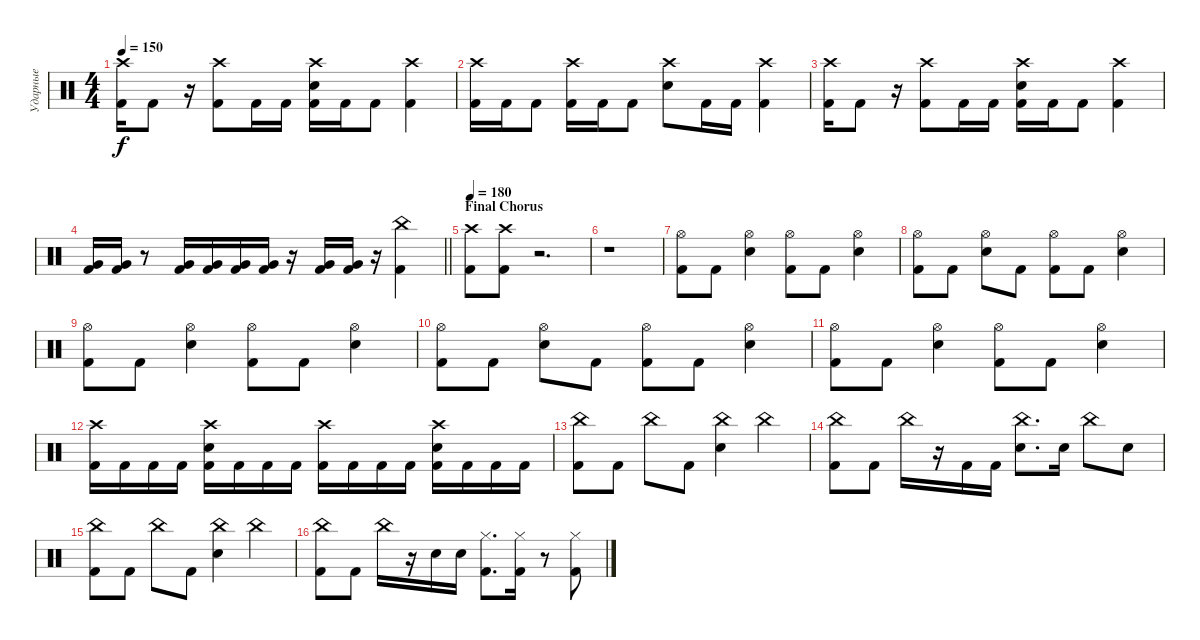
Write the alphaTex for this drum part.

\track ("Ударные" "Ударные") {instrument percussion}
\staff {score}
\articulation defaults
\ts (4 4)
\tempo 150
\clef neutral
\ks c
("Crash high (hit)" "Kick (hit) 2").16{dy f} "Kick (hit) 2".8 r.16 ("Crash high (hit)" "Kick (hit) 2").8 "Kick (hit) 2".16 "Kick (hit) 2".16 ("Crash high (hit)" "Electric Snare (hit)" "Kick (hit) 2").16 "Kick (hit) 2".16 "Kick (hit) 2".8 ("Crash high (hit)" "Kick (hit) 2").4 |
("Crash high (hit)" "Kick (hit) 2").16 "Kick (hit) 2".16 "Kick (hit) 2".8 ("Crash high (hit)" "Kick (hit) 2").16 "Kick (hit) 2".16 "Kick (hit) 2".8 ("Crash high (hit)" "Electric Snare (hit)").8 "Kick (hit) 2".16 "Kick (hit) 2".16 ("Crash high (hit)" "Kick (hit) 2").4 |
("Crash high (hit)" "Kick (hit) 2").16 "Kick (hit) 2".8 r.16 ("Crash high (hit)" "Kick (hit) 2").8 "Kick (hit) 2".16 "Kick (hit) 2".16 ("Crash high (hit)" "Electric Snare (hit)" "Kick (hit) 2").16 "Kick (hit) 2".16 "Kick (hit) 2".8 ("Crash high (hit)" "Kick (hit) 2").4 |
\barLineRight lightlight
("Very Low Tom (hit)" "Kick (hit) 2").16 ("Very Low Tom (hit)" "Kick (hit) 2").16 r.8 ("Very Low Tom (hit)" "Kick (hit) 2").16 ("Very Low Tom (hit)" "Kick (hit) 2").16 ("Very Low Tom (hit)" "Kick (hit) 2").16 ("Very Low Tom (hit)" "Kick (hit) 2").16 r.16 ("Very Low Tom (hit)" "Kick (hit) 2").16 ("Very Low Tom (hit)" "Kick (hit) 2").16 r.16 ("China (hit)" "Kick (hit) 2").4 |
\section ("" "Final Chorus")
\tempo 180
("Crash high (hit)" "Kick (hit) 2").8 ("Crash high (hit)" "Kick (hit) 2").8 r.2{d} |
r.1 |
("Hi-Hat (open)" "Kick (hit) 2").8 "Kick (hit) 2".8 ("Hi-Hat (open)" "Electric Snare (hit)").4 ("Hi-Hat (open)" "Kick (hit) 2").8 "Kick (hit) 2".8 ("Hi-Hat (open)" "Electric Snare (hit)").4 |
("Hi-Hat (open)" "Kick (hit) 2").8 "Kick (hit) 2".8 ("Hi-Hat (open)" "Electric Snare (hit)").8 "Kick (hit) 2".8 ("Hi-Hat (open)" "Kick (hit) 2").8 "Kick (hit) 2".8 ("Hi-Hat (open)" "Electric Snare (hit)").4 |
("Hi-Hat (open)" "Kick (hit) 2").8 "Kick (hit) 2".8 ("Hi-Hat (open)" "Electric Snare (hit)").4 ("Hi-Hat (open)" "Kick (hit) 2").8 "Kick (hit) 2".8 ("Hi-Hat (open)" "Electric Snare (hit)").4 |
("Hi-Hat (open)" "Kick (hit) 2").8 "Kick (hit) 2".8 ("Hi-Hat (open)" "Electric Snare (hit)").8 "Kick (hit) 2".8 ("Hi-Hat (open)" "Kick (hit) 2").8 "Kick (hit) 2".8 ("Hi-Hat (open)" "Electric Snare (hit)").4 |
("Hi-Hat (open)" "Kick (hit) 2").8 "Kick (hit) 2".8 ("Hi-Hat (open)" "Electric Snare (hit)").4 ("Hi-Hat (open)" "Kick (hit) 2").8 "Kick (hit) 2".8 ("Hi-Hat (open)" "Electric Snare (hit)").4 |
("Crash high (hit)" "Kick (hit) 2").16 "Kick (hit) 2".16 "Kick (hit) 2".16 "Kick (hit) 2".16 ("Crash high (hit)" "Electric Snare (hit)" "Kick (hit) 2").16 "Kick (hit) 2".16 "Kick (hit) 2".16 "Kick (hit) 2".16 ("Crash high (hit)" "Kick (hit) 2").16 "Kick (hit) 2".16 "Kick (hit) 2".16 "Kick (hit) 2".16 ("Crash high (hit)" "Electric Snare (hit)" "Kick (hit) 2").16 "Kick (hit) 2".16 "Kick (hit) 2".16 "Kick (hit) 2".16 |
("China (hit)" "Kick (hit) 2").8 "Kick (hit) 2".8 "China (hit)".8 "Kick (hit) 2".8 ("China (hit)" "Electric Snare (hit)").4 "China (hit)".4 |
("China (hit)" "Kick (hit) 2").8 "Kick (hit) 2".8 "China (hit)".16 r.16 "Kick (hit) 2".16 "Kick (hit) 2".16 ("China (hit)" "Electric Snare (hit)").8{d} "Electric Snare (hit)".16 "China (hit)".8 "Electric Snare (hit)".8 |
("China (hit)" "Kick (hit) 2").8 "Kick (hit) 2".8 "China (hit)".8 "Kick (hit) 2".8 ("China (hit)" "Electric Snare (hit)").4 "China (hit)".4 |
("China (hit)" "Kick (hit) 2").8 "Kick (hit) 2".8 "China (hit)".16 r.16 "Electric Snare (hit)".16 "Electric Snare (hit)".16 ("Hi-Hat (closed)" "Kick (hit) 2").8{d} ("Hi-Hat (closed)" "Kick (hit) 2").16 r.8 ("Hi-Hat (closed)" "Kick (hit) 2").8
